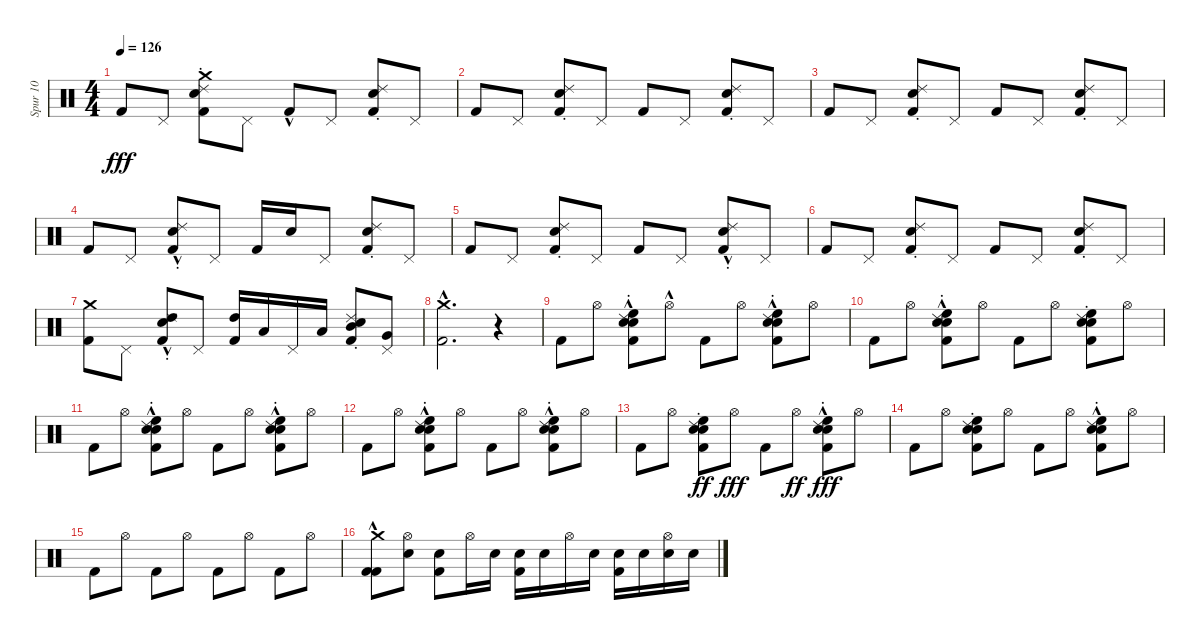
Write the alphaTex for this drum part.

\track ("Spur 10" "Spur 10") {instrument percussion}
\staff {score}
\articulation defaults
\ts (4 4)
\tempo 126
\clef neutral
\ks c "Kick (hit) 2".8{dy fff} "Pedal Hi-Hat (hit)".8
("Kick (hit) 2" "Ride (choke) 2" "Snare (hit) 2" "Crash medium (hit)").8 "Pedal Hi-Hat (hit)".8 "Kick (hit) 2"{hac}.8 "Pedal Hi-Hat (hit)".8 ("Ride (choke) 2" "Kick (hit) 2" "Snare (hit) 2").8 "Pedal Hi-Hat (hit)".8 |
"Kick (hit) 2".8 "Pedal Hi-Hat (hit)".8 ("Ride (choke) 2" "Snare (hit) 2" "Kick (hit) 2").8 "Pedal Hi-Hat (hit)".8 "Kick (hit) 2".8 "Pedal Hi-Hat (hit)".8 ("Kick (hit) 2" "Snare (hit) 2" "Ride (choke) 2").8 "Pedal Hi-Hat (hit)".8 |
"Kick (hit) 2".8 "Pedal Hi-Hat (hit)".8 ("Snare (hit) 2" "Ride (choke) 2" "Kick (hit) 2").8 "Pedal Hi-Hat (hit)".8 "Kick (hit) 2".8 "Pedal Hi-Hat (hit)".8 ("Ride (choke) 2" "Snare (hit) 2" "Kick (hit) 2").8 "Pedal Hi-Hat (hit)".8 |
"Kick (hit) 2".8 "Pedal Hi-Hat (hit)".8 ("Kick (hit) 2" "Ride (choke) 2"{hac} "Snare (hit) 2").8 "Pedal Hi-Hat (hit)".8 "Kick (hit) 2".16 "Snare (hit) 2".16 "Pedal Hi-Hat (hit)".8 ("Ride (choke) 2" "Kick (hit) 2" "Snare (hit) 2").8 "Pedal Hi-Hat (hit)".8 |
"Kick (hit) 2".8 "Pedal Hi-Hat (hit)".8 ("Ride (choke) 2" "Snare (hit) 2" "Kick (hit) 2").8 "Pedal Hi-Hat (hit)".8 "Kick (hit) 2".8 "Pedal Hi-Hat (hit)".8 ("Ride (choke) 2"{hac} "Snare (hit) 2" "Kick (hit) 2").8 "Pedal Hi-Hat (hit)".8 |
"Kick (hit) 2".8 "Pedal Hi-Hat (hit)".8 ("Ride (choke) 2" "Snare (hit) 2" "Kick (hit) 2").8 "Pedal Hi-Hat (hit)".8 "Kick (hit) 2".8 "Pedal Hi-Hat (hit)".8 ("Snare (hit) 2" "Ride (choke) 2" "Kick (hit) 2").8 "Pedal Hi-Hat (hit)".8 |
("Kick (hit) 2" "Crash medium (hit)").8 "Pedal Hi-Hat (hit)".8 ("Ride (choke) 2"{hac} "Kick (hit) 2" "Snare (hit) 2" "High Tom (hit)").8 "Pedal Hi-Hat (hit)".8 ("Kick (hit) 2" "High Tom (hit)").16 "Low Tom (hit)".16 "Pedal Hi-Hat (hit)".16 "Low Tom (hit)".16 ("Kick (hit) 2" "Snare (hit) 2" "Ride (choke) 2" "Mid Tom (hit)").8 ("Pedal Hi-Hat (hit)" "Very Low Tom (hit)").8 |
("Crash medium (hit)"{hac} "Kick (hit) 2"{hac}).2{d} r.4 |
"Kick (hit) 2".8 "Hi-Hat (open)".8 ("Kick (hit) 2" "High Floor Tom (hit)"{hac} "Electric Snare (hit)" "Ride (choke) 2"{hac} "Snare (hit) 2").8 "Hi-Hat (open)"{hac}.8 "Kick (hit) 2".8 "Hi-Hat (open)".8 ("High Floor Tom (hit)"{hac} "Kick (hit) 2" "Ride (choke) 2" "Electric Snare (hit)" "Snare (hit) 2").8 "Hi-Hat (open)".8 |
"Kick (hit) 2".8 "Hi-Hat (open)".8 ("Electric Snare (hit)" "Ride (choke) 2"{hac} "High Floor Tom (hit)"{hac} "Kick (hit) 2" "Snare (hit) 2").8 "Hi-Hat (open)".8 "Kick (hit) 2".8 "Hi-Hat (open)".8 ("High Floor Tom (hit)" "Kick (hit) 2" "Ride (choke) 2" "Electric Snare (hit)" "Snare (hit) 2").8 "Hi-Hat (open)".8 |
"Kick (hit) 2".8 "Hi-Hat (open)".8 ("Kick (hit) 2" "Electric Snare (hit)" "Ride (choke) 2"{hac} "High Floor Tom (hit)"{hac} "Snare (hit) 2").8 "Hi-Hat (open)".8 "Kick (hit) 2".8 "Hi-Hat (open)".8 ("Electric Snare (hit)" "Ride (choke) 2"{hac} "High Floor Tom (hit)"{hac} "Kick (hit) 2" "Snare (hit) 2").8 "Hi-Hat (open)".8 |
"Kick (hit) 2".8 "Hi-Hat (open)".8 ("High Floor Tom (hit)"{hac} "Ride (choke) 2"{hac} "Kick (hit) 2" "Electric Snare (hit)" "Snare (hit) 2").8 "Hi-Hat (open)".8 "Kick (hit) 2".8 "Hi-Hat (open)".8 ("Kick (hit) 2" "Ride (choke) 2"{hac} "Electric Snare (hit)" "High Floor Tom (hit)"{hac} "Snare (hit) 2").8 "Hi-Hat (open)".8 |
"Kick (hit) 2".8 "Hi-Hat (open)".8 ("Snare (hit) 2" "Kick (hit) 2" "Ride (choke) 2" "High Floor Tom (hit)" "Electric Snare (hit)").8{dy ff} "Hi-Hat (open)".8{dy fff} "Kick (hit) 2".8 "Hi-Hat (open)".8{dy ff} ("Electric Snare (hit)" "Kick (hit) 2" "High Floor Tom (hit)"{hac} "Ride (choke) 2" "Snare (hit) 2").8{dy fff} "Hi-Hat (open)".8 |
"Kick (hit) 2".8 "Hi-Hat (open)".8 ("Snare (hit) 2" "High Floor Tom (hit)" "Electric Snare (hit)" "Kick (hit) 2" "Ride (choke) 2").8 "Hi-Hat (open)".8 "Kick (hit) 2".8 "Hi-Hat (open)".8 ("Ride (choke) 2"{hac} "Kick (hit) 2" "Electric Snare (hit)" "High Floor Tom (hit)"{hac} "Snare (hit) 2").8 "Hi-Hat (open)".8 |
"Kick (hit) 2".8 "Hi-Hat (open)".8 "Kick (hit) 2".8 "Hi-Hat (open)".8 "Kick (hit) 2".8 "Hi-Hat (open)".8 "Kick (hit) 2".8 "Hi-Hat (open)".8 |
("Crash medium (hit)"{hac} "Kick (hit) 2" "Kick (hit) 2").8 ("Snare (hit) 2" "Hi-Hat (open)").8 ("Kick (hit) 2" "Snare (hit) 2").8 "Hi-Hat (open)".16 "Snare (hit) 2".16 ("Snare (hit) 2" "Kick (hit) 2").16 "Snare (hit) 2".16 "Hi-Hat (open)".16 "Snare (hit) 2".16 ("Snare (hit) 2" "Kick (hit) 2").16 "Snare (hit) 2".16 ("Snare (hit) 2" "Hi-Hat (open)").16 "Snare (hit) 2".16
